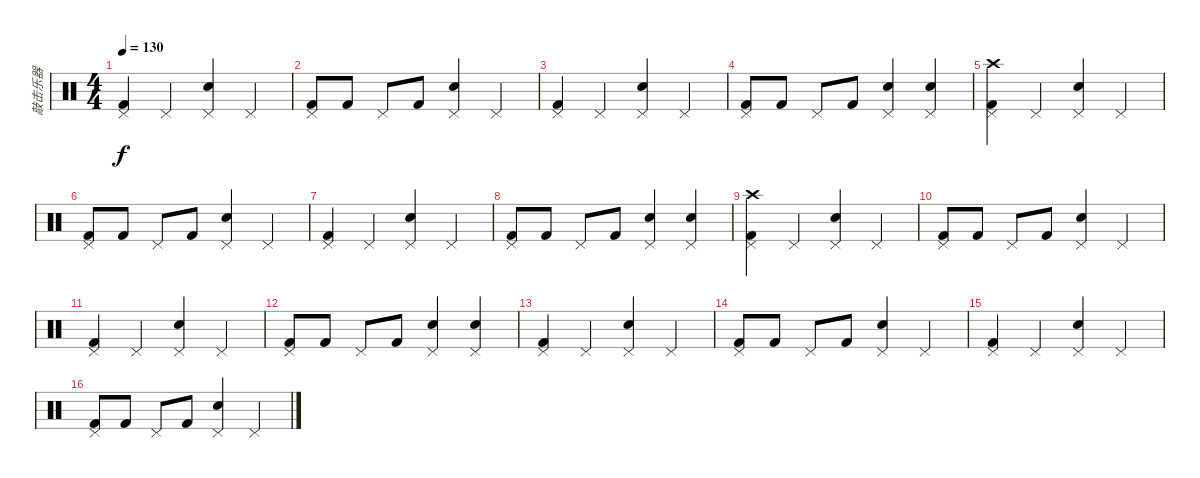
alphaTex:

\track ("敲击乐器" "敲击乐器") {instrument percussion}
\staff {score}
\articulation defaults
\ts (4 4)
\tempo 130
\clef neutral
\ks c
("Kick (hit) 2" "Pedal Hi-Hat (hit)").4{dy f} "Pedal Hi-Hat (hit)".4 ("Pedal Hi-Hat (hit)" "Electric Snare (hit)").4 "Pedal Hi-Hat (hit)".4 |
("Pedal Hi-Hat (hit)" "Kick (hit) 2").8 "Kick (hit) 2".8 "Pedal Hi-Hat (hit)".8 "Kick (hit) 2".8 ("Pedal Hi-Hat (hit)" "Electric Snare (hit)").4 "Pedal Hi-Hat (hit)".4 |
("Kick (hit) 2" "Pedal Hi-Hat (hit)").4 "Pedal Hi-Hat (hit)".4 ("Pedal Hi-Hat (hit)" "Electric Snare (hit)").4 "Pedal Hi-Hat (hit)".4 |
("Pedal Hi-Hat (hit)" "Kick (hit) 2").8 "Kick (hit) 2".8 "Pedal Hi-Hat (hit)".8 "Kick (hit) 2".8 ("Pedal Hi-Hat (hit)" "Electric Snare (hit)").4 ("Pedal Hi-Hat (hit)" "Electric Snare (hit)").4 |
("Crash high (hit)" "Kick (hit) 2" "Pedal Hi-Hat (hit)").4 "Pedal Hi-Hat (hit)".4 ("Pedal Hi-Hat (hit)" "Electric Snare (hit)").4 "Pedal Hi-Hat (hit)".4 |
("Pedal Hi-Hat (hit)" "Kick (hit) 2").8 "Kick (hit) 2".8 "Pedal Hi-Hat (hit)".8 "Kick (hit) 2".8 ("Pedal Hi-Hat (hit)" "Electric Snare (hit)").4 "Pedal Hi-Hat (hit)".4 |
("Kick (hit) 2" "Pedal Hi-Hat (hit)").4 "Pedal Hi-Hat (hit)".4 ("Pedal Hi-Hat (hit)" "Electric Snare (hit)").4 "Pedal Hi-Hat (hit)".4 |
("Pedal Hi-Hat (hit)" "Kick (hit) 2").8 "Kick (hit) 2".8 "Pedal Hi-Hat (hit)".8 "Kick (hit) 2".8 ("Pedal Hi-Hat (hit)" "Electric Snare (hit)").4 ("Pedal Hi-Hat (hit)" "Electric Snare (hit)").4 |
("Crash high (hit)" "Kick (hit) 2" "Pedal Hi-Hat (hit)").4 "Pedal Hi-Hat (hit)".4 ("Pedal Hi-Hat (hit)" "Electric Snare (hit)").4 "Pedal Hi-Hat (hit)".4 |
("Pedal Hi-Hat (hit)" "Kick (hit) 2").8 "Kick (hit) 2".8 "Pedal Hi-Hat (hit)".8 "Kick (hit) 2".8 ("Pedal Hi-Hat (hit)" "Electric Snare (hit)").4 "Pedal Hi-Hat (hit)".4 |
("Kick (hit) 2" "Pedal Hi-Hat (hit)").4 "Pedal Hi-Hat (hit)".4 ("Pedal Hi-Hat (hit)" "Electric Snare (hit)").4 "Pedal Hi-Hat (hit)".4 |
("Pedal Hi-Hat (hit)" "Kick (hit) 2").8 "Kick (hit) 2".8 "Pedal Hi-Hat (hit)".8 "Kick (hit) 2".8 ("Pedal Hi-Hat (hit)" "Electric Snare (hit)").4 ("Pedal Hi-Hat (hit)" "Electric Snare (hit)").4 |
("Kick (hit) 2" "Pedal Hi-Hat (hit)").4 "Pedal Hi-Hat (hit)".4 ("Pedal Hi-Hat (hit)" "Electric Snare (hit)").4 "Pedal Hi-Hat (hit)".4 |
("Pedal Hi-Hat (hit)" "Kick (hit) 2").8 "Kick (hit) 2".8 "Pedal Hi-Hat (hit)".8 "Kick (hit) 2".8 ("Pedal Hi-Hat (hit)" "Electric Snare (hit)").4 "Pedal Hi-Hat (hit)".4 |
("Kick (hit) 2" "Pedal Hi-Hat (hit)").4 "Pedal Hi-Hat (hit)".4 ("Pedal Hi-Hat (hit)" "Electric Snare (hit)").4 "Pedal Hi-Hat (hit)".4 |
("Pedal Hi-Hat (hit)" "Kick (hit) 2").8 "Kick (hit) 2".8 "Pedal Hi-Hat (hit)".8 "Kick (hit) 2".8 ("Pedal Hi-Hat (hit)" "Electric Snare (hit)").4 "Pedal Hi-Hat (hit)".4
